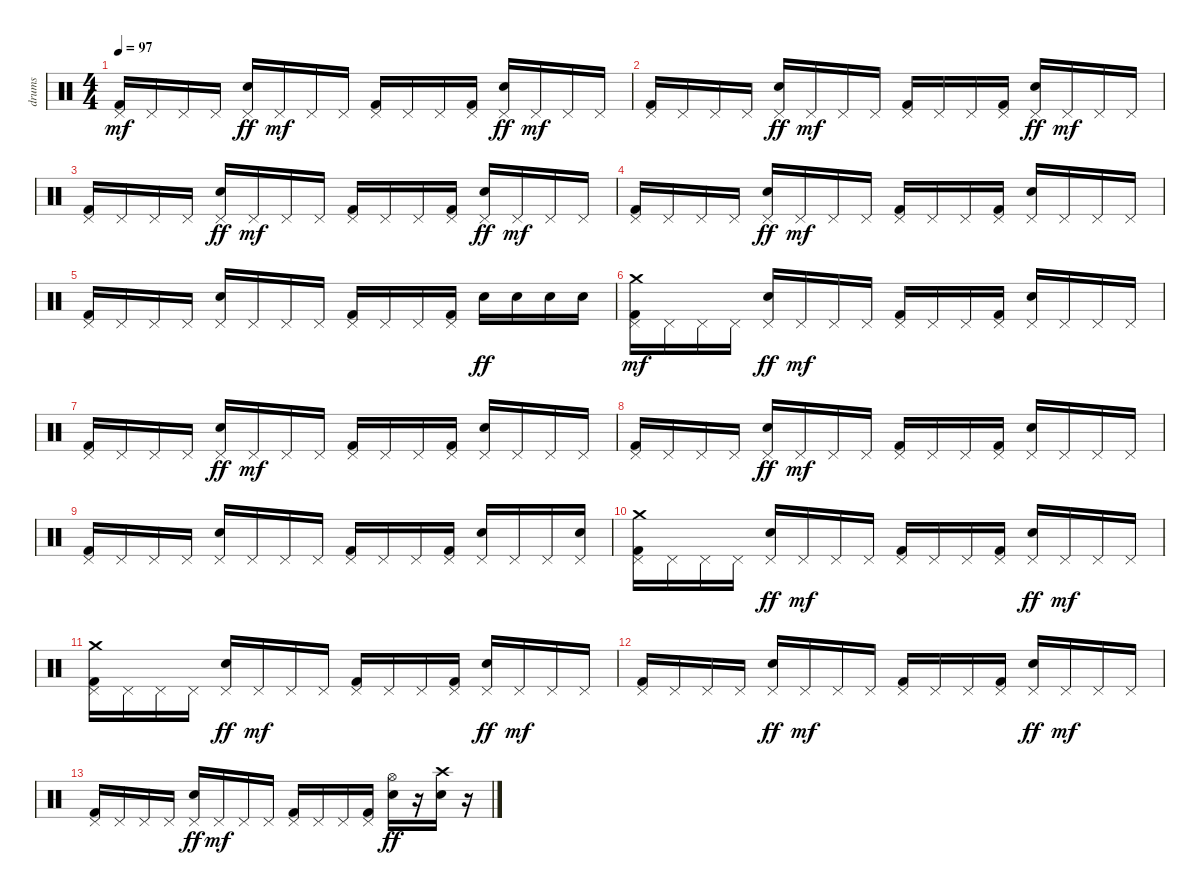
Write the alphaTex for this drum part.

\track ("drums" "drums") {instrument percussion}
\staff {score}
\articulation defaults
\ts (4 4)
\tempo 97
\clef neutral
\ks c
("Pedal Hi-Hat (hit)" "Kick (hit) 2").16{dy mf} "Pedal Hi-Hat (hit)".16 "Pedal Hi-Hat (hit)".16 "Pedal Hi-Hat (hit)".16 ("Pedal Hi-Hat (hit)" "Electric Snare (hit)").16{dy ff} "Pedal Hi-Hat (hit)".16{dy mf} "Pedal Hi-Hat (hit)".16 "Pedal Hi-Hat (hit)".16 ("Pedal Hi-Hat (hit)" "Kick (hit) 2").16 "Pedal Hi-Hat (hit)".16 "Pedal Hi-Hat (hit)".16 ("Kick (hit) 2" "Pedal Hi-Hat (hit)").16 ("Pedal Hi-Hat (hit)" "Electric Snare (hit)").16{dy ff} "Pedal Hi-Hat (hit)".16{dy mf} "Pedal Hi-Hat (hit)".16 "Pedal Hi-Hat (hit)".16 |
("Pedal Hi-Hat (hit)" "Kick (hit) 2").16 "Pedal Hi-Hat (hit)".16 "Pedal Hi-Hat (hit)".16 "Pedal Hi-Hat (hit)".16 ("Pedal Hi-Hat (hit)" "Electric Snare (hit)").16{dy ff} "Pedal Hi-Hat (hit)".16{dy mf} "Pedal Hi-Hat (hit)".16 "Pedal Hi-Hat (hit)".16 ("Pedal Hi-Hat (hit)" "Kick (hit) 2").16 "Pedal Hi-Hat (hit)".16 "Pedal Hi-Hat (hit)".16 ("Kick (hit) 2" "Pedal Hi-Hat (hit)").16 ("Pedal Hi-Hat (hit)" "Electric Snare (hit)").16{dy ff} "Pedal Hi-Hat (hit)".16{dy mf} "Pedal Hi-Hat (hit)".16 "Pedal Hi-Hat (hit)".16 |
("Pedal Hi-Hat (hit)" "Kick (hit) 2").16 "Pedal Hi-Hat (hit)".16 "Pedal Hi-Hat (hit)".16 "Pedal Hi-Hat (hit)".16 ("Pedal Hi-Hat (hit)" "Electric Snare (hit)").16{dy ff} "Pedal Hi-Hat (hit)".16{dy mf} "Pedal Hi-Hat (hit)".16 "Pedal Hi-Hat (hit)".16 ("Pedal Hi-Hat (hit)" "Kick (hit) 2").16 "Pedal Hi-Hat (hit)".16 "Pedal Hi-Hat (hit)".16 ("Kick (hit) 2" "Pedal Hi-Hat (hit)").16 ("Pedal Hi-Hat (hit)" "Electric Snare (hit)").16{dy ff} "Pedal Hi-Hat (hit)".16{dy mf} "Pedal Hi-Hat (hit)".16 "Pedal Hi-Hat (hit)".16 |
("Pedal Hi-Hat (hit)" "Kick (hit) 2").16 "Pedal Hi-Hat (hit)".16 "Pedal Hi-Hat (hit)".16 "Pedal Hi-Hat (hit)".16 ("Pedal Hi-Hat (hit)" "Electric Snare (hit)").16{dy ff} "Pedal Hi-Hat (hit)".16{dy mf} "Pedal Hi-Hat (hit)".16 "Pedal Hi-Hat (hit)".16 ("Kick (hit) 2" "Pedal Hi-Hat (hit)").16 "Pedal Hi-Hat (hit)".16 "Pedal Hi-Hat (hit)".16 ("Kick (hit) 2" "Pedal Hi-Hat (hit)").16 ("Electric Snare (hit)" "Pedal Hi-Hat (hit)").16 "Pedal Hi-Hat (hit)".16 "Pedal Hi-Hat (hit)".16 "Pedal Hi-Hat (hit)".16 |
("Kick (hit) 2" "Pedal Hi-Hat (hit)").16 "Pedal Hi-Hat (hit)".16 "Pedal Hi-Hat (hit)".16 "Pedal Hi-Hat (hit)".16 ("Electric Snare (hit)" "Pedal Hi-Hat (hit)").16 "Pedal Hi-Hat (hit)".16 "Pedal Hi-Hat (hit)".16 "Pedal Hi-Hat (hit)".16 ("Kick (hit) 2" "Pedal Hi-Hat (hit)").16 "Pedal Hi-Hat (hit)".16 "Pedal Hi-Hat (hit)".16 ("Kick (hit) 2" "Pedal Hi-Hat (hit)").16 "Electric Snare (hit)".16{dy ff} "Electric Snare (hit)".16 "Electric Snare (hit)".16 "Electric Snare (hit)".16 |
("Pedal Hi-Hat (hit)" "Kick (hit) 2" "Crash medium (hit)").16{dy mf} "Pedal Hi-Hat (hit)".16 "Pedal Hi-Hat (hit)".16 "Pedal Hi-Hat (hit)".16 ("Pedal Hi-Hat (hit)" "Electric Snare (hit)").16{dy ff} "Pedal Hi-Hat (hit)".16{dy mf} "Pedal Hi-Hat (hit)".16 "Pedal Hi-Hat (hit)".16 ("Kick (hit) 2" "Pedal Hi-Hat (hit)").16 "Pedal Hi-Hat (hit)".16 "Pedal Hi-Hat (hit)".16 ("Pedal Hi-Hat (hit)" "Kick (hit) 2").16 ("Electric Snare (hit)" "Pedal Hi-Hat (hit)").16 "Pedal Hi-Hat (hit)".16 "Pedal Hi-Hat (hit)".16 "Pedal Hi-Hat (hit)".16 |
("Pedal Hi-Hat (hit)" "Kick (hit) 2").16 "Pedal Hi-Hat (hit)".16 "Pedal Hi-Hat (hit)".16 "Pedal Hi-Hat (hit)".16 ("Pedal Hi-Hat (hit)" "Electric Snare (hit)").16{dy ff} "Pedal Hi-Hat (hit)".16{dy mf} "Pedal Hi-Hat (hit)".16 "Pedal Hi-Hat (hit)".16 ("Kick (hit) 2" "Pedal Hi-Hat (hit)").16 "Pedal Hi-Hat (hit)".16 "Pedal Hi-Hat (hit)".16 ("Pedal Hi-Hat (hit)" "Kick (hit) 2").16 ("Electric Snare (hit)" "Pedal Hi-Hat (hit)").16 "Pedal Hi-Hat (hit)".16 "Pedal Hi-Hat (hit)".16 "Pedal Hi-Hat (hit)".16 |
("Pedal Hi-Hat (hit)" "Kick (hit) 2").16 "Pedal Hi-Hat (hit)".16 "Pedal Hi-Hat (hit)".16 "Pedal Hi-Hat (hit)".16 ("Pedal Hi-Hat (hit)" "Electric Snare (hit)").16{dy ff} "Pedal Hi-Hat (hit)".16{dy mf} "Pedal Hi-Hat (hit)".16 "Pedal Hi-Hat (hit)".16 ("Kick (hit) 2" "Pedal Hi-Hat (hit)").16 "Pedal Hi-Hat (hit)".16 "Pedal Hi-Hat (hit)".16 ("Pedal Hi-Hat (hit)" "Kick (hit) 2").16 ("Electric Snare (hit)" "Pedal Hi-Hat (hit)").16 "Pedal Hi-Hat (hit)".16 "Pedal Hi-Hat (hit)".16 "Pedal Hi-Hat (hit)".16 |
("Kick (hit) 2" "Pedal Hi-Hat (hit)").16 "Pedal Hi-Hat (hit)".16 "Pedal Hi-Hat (hit)".16 "Pedal Hi-Hat (hit)".16 ("Electric Snare (hit)" "Pedal Hi-Hat (hit)").16 "Pedal Hi-Hat (hit)".16 "Pedal Hi-Hat (hit)".16 "Pedal Hi-Hat (hit)".16 ("Pedal Hi-Hat (hit)" "Kick (hit) 2").16 "Pedal Hi-Hat (hit)".16 "Pedal Hi-Hat (hit)".16 ("Kick (hit) 2" "Pedal Hi-Hat (hit)").16 ("Electric Snare (hit)" "Pedal Hi-Hat (hit)").16 "Pedal Hi-Hat (hit)".16 "Pedal Hi-Hat (hit)".16 ("Electric Snare (hit)" "Pedal Hi-Hat (hit)").16 |
("Pedal Hi-Hat (hit)" "Kick (hit) 2" "Crash medium (hit)").16 "Pedal Hi-Hat (hit)".16 "Pedal Hi-Hat (hit)".16 "Pedal Hi-Hat (hit)".16 ("Pedal Hi-Hat (hit)" "Electric Snare (hit)").16{dy ff} "Pedal Hi-Hat (hit)".16{dy mf} "Pedal Hi-Hat (hit)".16 "Pedal Hi-Hat (hit)".16 ("Kick (hit) 2" "Pedal Hi-Hat (hit)").16 "Pedal Hi-Hat (hit)".16 "Pedal Hi-Hat (hit)".16 ("Pedal Hi-Hat (hit)" "Kick (hit) 2").16 ("Pedal Hi-Hat (hit)" "Electric Snare (hit)").16{dy ff} "Pedal Hi-Hat (hit)".16{dy mf} "Pedal Hi-Hat (hit)".16 "Pedal Hi-Hat (hit)".16 |
("Pedal Hi-Hat (hit)" "Kick (hit) 2" "Crash medium (hit)").16 "Pedal Hi-Hat (hit)".16 "Pedal Hi-Hat (hit)".16 "Pedal Hi-Hat (hit)".16 ("Pedal Hi-Hat (hit)" "Electric Snare (hit)").16{dy ff} "Pedal Hi-Hat (hit)".16{dy mf} "Pedal Hi-Hat (hit)".16 "Pedal Hi-Hat (hit)".16 ("Kick (hit) 2" "Pedal Hi-Hat (hit)").16 "Pedal Hi-Hat (hit)".16 "Pedal Hi-Hat (hit)".16 ("Kick (hit) 2" "Pedal Hi-Hat (hit)").16 ("Pedal Hi-Hat (hit)" "Electric Snare (hit)").16{dy ff} "Pedal Hi-Hat (hit)".16{dy mf} "Pedal Hi-Hat (hit)".16 "Pedal Hi-Hat (hit)".16 |
("Pedal Hi-Hat (hit)" "Kick (hit) 2").16 "Pedal Hi-Hat (hit)".16 "Pedal Hi-Hat (hit)".16 "Pedal Hi-Hat (hit)".16 ("Pedal Hi-Hat (hit)" "Electric Snare (hit)").16{dy ff} "Pedal Hi-Hat (hit)".16{dy mf} "Pedal Hi-Hat (hit)".16 "Pedal Hi-Hat (hit)".16 ("Kick (hit) 2" "Pedal Hi-Hat (hit)").16 "Pedal Hi-Hat (hit)".16 "Pedal Hi-Hat (hit)".16 ("Pedal Hi-Hat (hit)" "Kick (hit) 2").16 ("Pedal Hi-Hat (hit)" "Electric Snare (hit)").16{dy ff} "Pedal Hi-Hat (hit)".16{dy mf} "Pedal Hi-Hat (hit)".16 "Pedal Hi-Hat (hit)".16 |
("Pedal Hi-Hat (hit)" "Kick (hit) 2").16 "Pedal Hi-Hat (hit)".16 "Pedal Hi-Hat (hit)".16 "Pedal Hi-Hat (hit)".16 ("Pedal Hi-Hat (hit)" "Electric Snare (hit)").16{dy ff} "Pedal Hi-Hat (hit)".16{dy mf} "Pedal Hi-Hat (hit)".16 "Pedal Hi-Hat (hit)".16 ("Kick (hit) 2" "Pedal Hi-Hat (hit)").16 "Pedal Hi-Hat (hit)".16 "Pedal Hi-Hat (hit)".16 ("Kick (hit) 2" "Pedal Hi-Hat (hit)").16 ("Hi-Hat (open)" "Electric Snare (hit)").16{dy ff} r.16 ("Crash high (hit)" "Electric Snare (hit)").16 r.16
